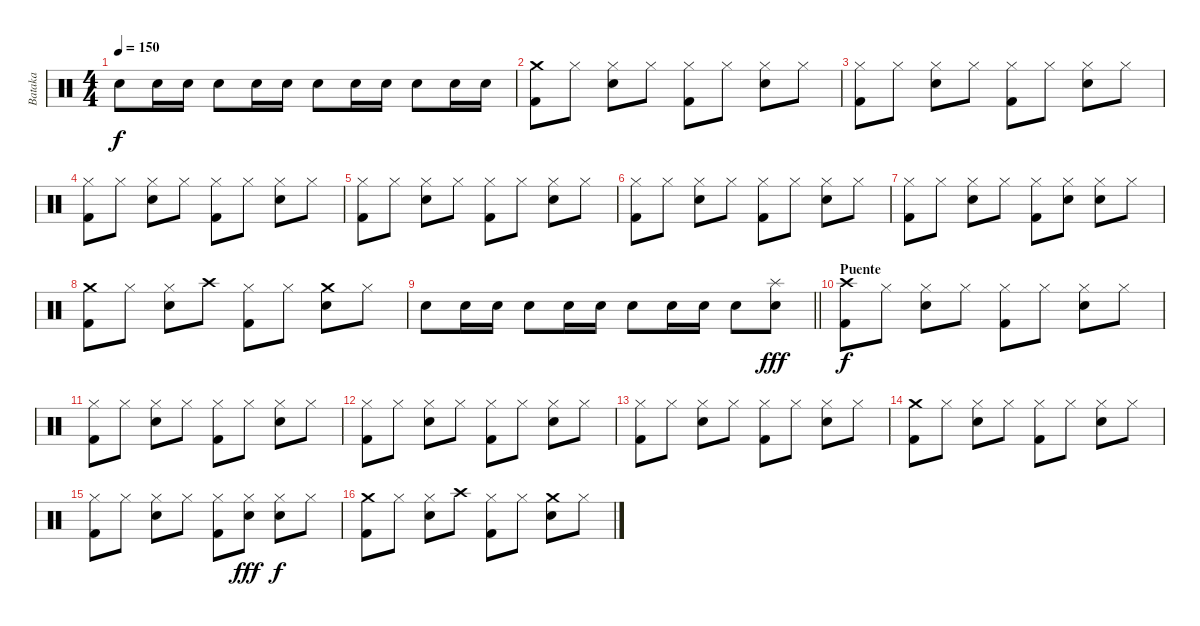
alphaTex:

\track ("Bataka" "Bataka") {instrument percussion}
\staff {score}
\articulation defaults
\ts (4 4)
\tempo 150
\clef neutral
\ks c "Snare (hit) 2".8{dy f} "Snare (hit) 2".16 "Snare (hit) 2".16 "Snare (hit) 2".8 "Snare (hit) 2".16 "Snare (hit) 2".16 "Snare (hit) 2".8 "Snare (hit) 2".16 "Snare (hit) 2".16 "Snare (hit) 2".8 "Snare (hit) 2".16 "Snare (hit) 2".16
|
("Crash medium (hit)" "Kick (hit) 2").8 "Hi-Hat (closed)".8 ("Hi-Hat (closed)" "Snare (hit) 2").8 "Hi-Hat (closed)".8 ("Hi-Hat (closed)" "Kick (hit) 2").8 "Hi-Hat (closed)".8 ("Hi-Hat (closed)" "Snare (hit) 2").8 "Hi-Hat (closed)".8 |
("Hi-Hat (closed)" "Kick (hit) 2").8 "Hi-Hat (closed)".8 ("Hi-Hat (closed)" "Snare (hit) 2").8 "Hi-Hat (closed)".8 ("Hi-Hat (closed)" "Kick (hit) 2").8 "Hi-Hat (closed)".8 ("Hi-Hat (closed)" "Snare (hit) 2").8 "Hi-Hat (closed)".8 |
("Hi-Hat (closed)" "Kick (hit) 2").8 "Hi-Hat (closed)".8 ("Hi-Hat (closed)" "Snare (hit) 2").8 "Hi-Hat (closed)".8 ("Hi-Hat (closed)" "Kick (hit) 2").8 "Hi-Hat (closed)".8 ("Hi-Hat (closed)" "Snare (hit) 2").8 "Hi-Hat (closed)".8 |
("Hi-Hat (closed)" "Kick (hit) 2").8 "Hi-Hat (closed)".8 ("Hi-Hat (closed)" "Snare (hit) 2").8 "Hi-Hat (closed)".8 ("Hi-Hat (closed)" "Kick (hit) 2").8 "Hi-Hat (closed)".8 ("Hi-Hat (closed)" "Snare (hit) 2").8 "Hi-Hat (closed)".8 |
("Hi-Hat (closed)" "Kick (hit) 2").8 "Hi-Hat (closed)".8 ("Hi-Hat (closed)" "Snare (hit) 2").8 "Hi-Hat (closed)".8 ("Hi-Hat (closed)" "Kick (hit) 2").8 "Hi-Hat (closed)".8 ("Hi-Hat (closed)" "Snare (hit) 2").8 "Hi-Hat (closed)".8 |
("Hi-Hat (closed)" "Kick (hit) 2").8 "Hi-Hat (closed)".8 ("Hi-Hat (closed)" "Snare (hit) 2").8 "Hi-Hat (closed)".8 ("Hi-Hat (closed)" "Kick (hit) 2").8 ("Hi-Hat (closed)" "Snare (hit) 2").8 ("Hi-Hat (closed)" "Snare (hit) 2").8 "Hi-Hat (closed)".8 |
("Crash medium (hit)" "Kick (hit) 2").8 "Hi-Hat (closed)".8 ("Hi-Hat (closed)" "Snare (hit) 2").8 "Crash high (hit)".8 ("Hi-Hat (closed)" "Kick (hit) 2").8 "Hi-Hat (closed)".8 ("Crash medium (hit)" "Snare (hit) 2").8 "Hi-Hat (closed)".8 |
\barLineRight lightlight "Snare (hit) 2".8 "Snare (hit) 2".16 "Snare (hit) 2".16 "Snare (hit) 2".8 "Snare (hit) 2".16 "Snare (hit) 2".16 "Snare (hit) 2".8 "Snare (hit) 2".16 "Snare (hit) 2".16 "Snare (hit) 2".8
("Splash (hit)" "Snare (hit) 2").8{dy fff} |
\section ("" "Puente")
("Crash high (hit)" "Kick (hit) 2").8{dy f} "Hi-Hat (closed)".8 ("Hi-Hat (closed)" "Snare (hit) 2").8 "Hi-Hat (closed)".8 ("Hi-Hat (closed)" "Kick (hit) 2").8 "Hi-Hat (closed)".8 ("Hi-Hat (closed)" "Snare (hit) 2").8 "Hi-Hat (closed)".8 |
("Hi-Hat (closed)" "Kick (hit) 2").8 "Hi-Hat (closed)".8 ("Hi-Hat (closed)" "Snare (hit) 2").8 "Hi-Hat (closed)".8 ("Hi-Hat (closed)" "Kick (hit) 2").8 "Hi-Hat (closed)".8 ("Hi-Hat (closed)" "Snare (hit) 2").8 "Hi-Hat (closed)".8 |
("Hi-Hat (closed)" "Kick (hit) 2").8 "Hi-Hat (closed)".8 ("Hi-Hat (closed)" "Snare (hit) 2").8 "Hi-Hat (closed)".8 ("Hi-Hat (closed)" "Kick (hit) 2").8 "Hi-Hat (closed)".8 ("Hi-Hat (closed)" "Snare (hit) 2").8 "Hi-Hat (closed)".8 |
("Hi-Hat (closed)" "Kick (hit) 2").8 "Hi-Hat (closed)".8 ("Hi-Hat (closed)" "Snare (hit) 2").8 "Hi-Hat (closed)".8 ("Hi-Hat (closed)" "Kick (hit) 2").8 "Hi-Hat (closed)".8 ("Hi-Hat (closed)" "Snare (hit) 2").8 "Hi-Hat (closed)".8 |
("Crash medium (hit)" "Kick (hit) 2").8 "Hi-Hat (closed)".8 ("Hi-Hat (closed)" "Snare (hit) 2").8 "Hi-Hat (closed)".8 ("Hi-Hat (closed)" "Kick (hit) 2").8 "Hi-Hat (closed)".8 ("Hi-Hat (closed)" "Snare (hit) 2").8 "Hi-Hat (closed)".8 |
("Hi-Hat (closed)" "Kick (hit) 2").8 "Hi-Hat (closed)".8 ("Hi-Hat (closed)" "Snare (hit) 2").8 "Hi-Hat (closed)".8 ("Hi-Hat (closed)" "Kick (hit) 2").8 ("Hi-Hat (closed)" "Snare (hit) 2").8{dy fff} ("Hi-Hat (closed)" "Snare (hit) 2").8{dy f} "Hi-Hat (closed)".8 |
("Crash medium (hit)" "Kick (hit) 2").8 "Hi-Hat (closed)".8 ("Hi-Hat (closed)" "Snare (hit) 2").8 "Crash high (hit)".8 ("Hi-Hat (closed)" "Kick (hit) 2").8 "Hi-Hat (closed)".8 ("Crash medium (hit)" "Snare (hit) 2").8 "Hi-Hat (closed)".8
